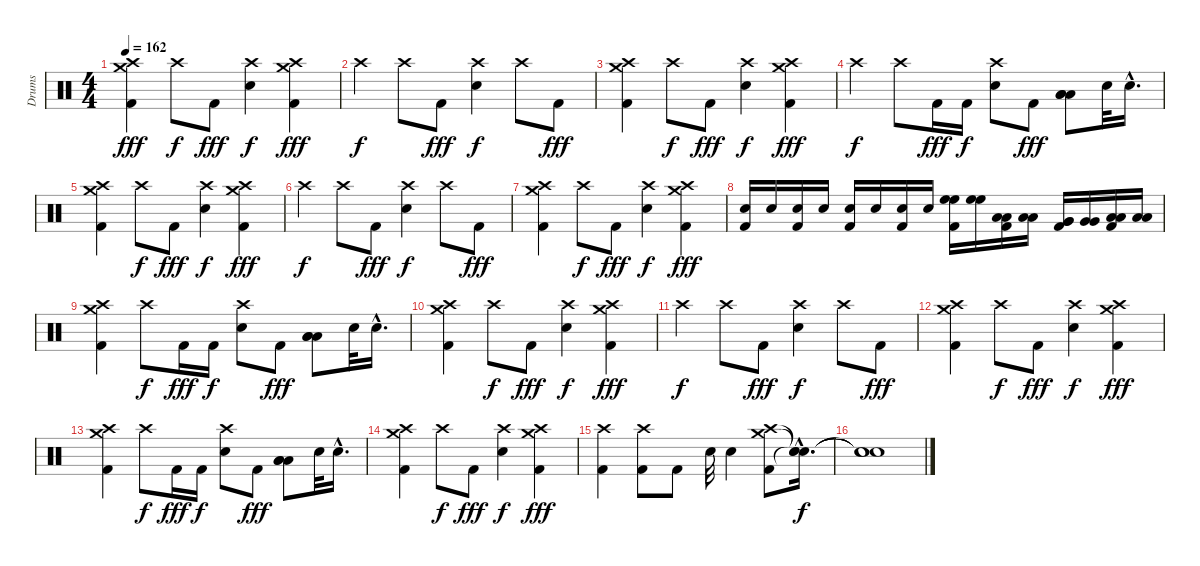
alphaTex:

\track ("Drums" "Drums") {instrument percussion}
\staff {score}
\articulation defaults
\ts (4 4)
\tempo 162
\clef neutral
\ks c
("Crash high (hit)" "Crash medium (hit)" "Kick (hit) 2").4{dy fff} "Crash high (hit)".8{dy f} "Kick (hit) 2".8{dy fff} ("Crash high (hit)" "Snare (hit) 2").4{dy f} ("Crash medium (hit)" "Crash high (hit)" "Kick (hit) 2").4{dy fff} |
"Crash high (hit)".4{dy f} "Crash high (hit)".8 "Kick (hit) 2".8{dy fff} ("Crash high (hit)" "Snare (hit) 2").4{dy f} "Crash high (hit)".8 "Kick (hit) 2".8{dy fff} |
("Crash high (hit)" "Crash medium (hit)" "Kick (hit) 2").4 "Crash high (hit)".8{dy f} "Kick (hit) 2".8{dy fff} ("Crash high (hit)" "Snare (hit) 2").4{dy f} ("Crash medium (hit)" "Crash high (hit)" "Kick (hit) 2").4{dy fff} |
"Crash high (hit)".4{dy f} "Crash high (hit)".8 "Kick (hit) 2".16{dy fff} "Kick (hit) 2".16{dy f} ("Crash high (hit)" "Snare (hit) 2").8 "Kick (hit) 2".8{dy fff} ("Low Floor Tom (hit)" "Low Floor Tom (hit)" "Low Tom (hit)").8 "Snare (hit) 2".32 "Snare (hit) 2"{hac}.16{d} |
("Crash high (hit)" "Crash medium (hit)" "Kick (hit) 2").4 "Crash high (hit)".8{dy f} "Kick (hit) 2".8{dy fff} ("Crash high (hit)" "Snare (hit) 2").4{dy f} ("Crash medium (hit)" "Crash high (hit)" "Kick (hit) 2").4{dy fff} |
"Crash high (hit)".4{dy f} "Crash high (hit)".8 "Kick (hit) 2".8{dy fff} ("Crash high (hit)" "Snare (hit) 2").4{dy f} "Crash high (hit)".8 "Kick (hit) 2".8{dy fff} |
("Crash high (hit)" "Crash medium (hit)" "Kick (hit) 2").4 "Crash high (hit)".8{dy f} "Kick (hit) 2".8{dy fff} ("Crash high (hit)" "Snare (hit) 2").4{dy f} ("Crash medium (hit)" "Crash high (hit)" "Kick (hit) 2").4{dy fff} |
("Snare (hit) 2" "Kick (hit) 2").16 "Snare (hit) 2".16 ("Snare (hit) 2" "Kick (hit) 2").16 "Snare (hit) 2".16 ("Snare (hit) 2" "Kick (hit) 2").16 "Snare (hit) 2".16 ("Snare (hit) 2" "Kick (hit) 2").16 "Snare (hit) 2".16 ("High Floor Tom (hit)" "High Floor Tom (hit)" "Kick (hit) 2").16 ("High Floor Tom (hit)" "High Floor Tom (hit)").16 ("Low Tom (hit)" "Low Tom (hit)" "Kick (hit) 2").16 ("Low Tom (hit)" "Low Tom (hit)").16 ("Very Low Tom (hit)" "Very Low Tom (hit)" "Kick (hit) 2").16 ("Very Low Tom (hit)" "Very Low Tom (hit)").16 ("Kick (hit) 2" "Low Floor Tom (hit)" "Low Floor Tom (hit)").16 ("Low Floor Tom (hit)" "Low Floor Tom (hit)").16 |
("Crash high (hit)" "Crash medium (hit)" "Kick (hit) 2").4 "Crash high (hit)".8{dy f} "Kick (hit) 2".16{dy fff} "Kick (hit) 2".16{dy f} ("Crash high (hit)" "Snare (hit) 2").8 "Kick (hit) 2".8{dy fff} ("Low Floor Tom (hit)" "Low Floor Tom (hit)" "Low Tom (hit)").8 "Snare (hit) 2".32 "Snare (hit) 2"{hac}.16{d} |
("Crash high (hit)" "Crash medium (hit)" "Kick (hit) 2").4 "Crash high (hit)".8{dy f} "Kick (hit) 2".8{dy fff} ("Crash high (hit)" "Snare (hit) 2").4{dy f} ("Crash medium (hit)" "Crash high (hit)" "Kick (hit) 2").4{dy fff} |
"Crash high (hit)".4{dy f} "Crash high (hit)".8 "Kick (hit) 2".8{dy fff} ("Crash high (hit)" "Snare (hit) 2").4{dy f} "Crash high (hit)".8 "Kick (hit) 2".8{dy fff} |
("Crash high (hit)" "Crash medium (hit)" "Kick (hit) 2").4 "Crash high (hit)".8{dy f} "Kick (hit) 2".8{dy fff} ("Crash high (hit)" "Snare (hit) 2").4{dy f} ("Crash medium (hit)" "Crash high (hit)" "Kick (hit) 2").4{dy fff} |
("Crash high (hit)" "Crash medium (hit)" "Kick (hit) 2").4 "Crash high (hit)".8{dy f} "Kick (hit) 2".16{dy fff} "Kick (hit) 2".16{dy f} ("Crash high (hit)" "Snare (hit) 2").8 "Kick (hit) 2".8{dy fff} ("Low Floor Tom (hit)" "Low Floor Tom (hit)" "Low Tom (hit)").8 "Snare (hit) 2".32 "Snare (hit) 2"{hac}.16{d} |
("Crash high (hit)" "Crash medium (hit)" "Kick (hit) 2").4 "Crash high (hit)".8{dy f} "Kick (hit) 2".8{dy fff} ("Crash high (hit)" "Snare (hit) 2").4{dy f} ("Crash medium (hit)" "Crash high (hit)" "Kick (hit) 2").4{dy fff} |
("Crash high (hit)" "Kick (hit) 2").4 ("Crash high (hit)" "Kick (hit) 2").8 "Kick (hit) 2".8 "Snare (hit) 2".32 "Snare (hit) 2".4 ("Crash medium (hit)" "Crash high (hit)" "Kick (hit) 2").8 ("Snare (hit)"{hac t} "Snare (hit)"{hac t} "Snare (hit)"{hac t}).16{d dy f} |
("Snare (hit)"{t} "Snare (hit)"{t} "Snare (hit)"{t}).1
